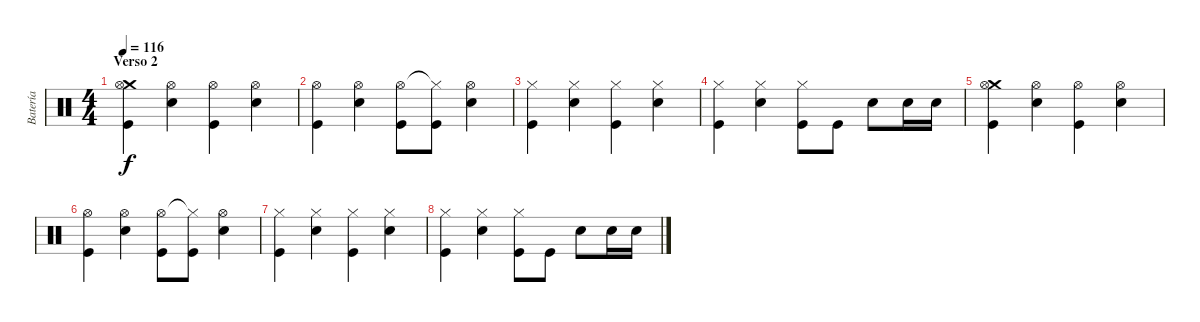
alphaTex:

\track ("Batería" "Batería") {instrument percussion}
\staff {score}
\articulation defaults
\ts (4 4)
\section ("" "Verso 2")
\tempo 116
\clef neutral
\ks c
("Crash medium (hit)" "Hi-Hat (open)" "Kick (hit)").4{dy f} ("Hi-Hat (open)" "Snare (hit) 2").4 ("Hi-Hat (open)" "Kick (hit)").4 ("Hi-Hat (open)" "Snare (hit) 2").4 |
("Hi-Hat (open)" "Kick (hit)").4 ("Hi-Hat (open)" "Snare (hit) 2").4 ("Hi-Hat (open)" "Kick (hit)").8 ("Hi-Hat (closed)"{t} "Kick (hit)").8 ("Hi-Hat (open)" "Snare (hit) 2").4 |
("Hi-Hat (closed)" "Kick (hit)").4 ("Hi-Hat (closed)" "Snare (hit) 2").4 ("Hi-Hat (closed)" "Kick (hit)").4 ("Hi-Hat (closed)" "Snare (hit) 2").4 |
("Hi-Hat (closed)" "Kick (hit)").4 ("Hi-Hat (closed)" "Snare (hit) 2").4 ("Hi-Hat (closed)" "Kick (hit)").8 "Kick (hit)".8 "Snare (hit) 2".8 "Snare (hit) 2".16 "Snare (hit) 2".16 |
("Crash medium (hit)" "Hi-Hat (open)" "Kick (hit)").4 ("Hi-Hat (open)" "Snare (hit) 2").4 ("Hi-Hat (open)" "Kick (hit)").4 ("Hi-Hat (open)" "Snare (hit) 2").4 |
("Hi-Hat (open)" "Kick (hit)").4 ("Hi-Hat (open)" "Snare (hit) 2").4 ("Hi-Hat (open)" "Kick (hit)").8 ("Hi-Hat (closed)"{t} "Kick (hit)").8 ("Hi-Hat (open)" "Snare (hit) 2").4 |
("Hi-Hat (closed)" "Kick (hit)").4 ("Hi-Hat (closed)" "Snare (hit) 2").4 ("Hi-Hat (closed)" "Kick (hit)").4 ("Hi-Hat (closed)" "Snare (hit) 2").4 |
("Hi-Hat (closed)" "Kick (hit)").4 ("Hi-Hat (closed)" "Snare (hit) 2").4 ("Hi-Hat (closed)" "Kick (hit)").8 "Kick (hit)".8 "Snare (hit) 2".8 "Snare (hit) 2".16 "Snare (hit) 2".16
